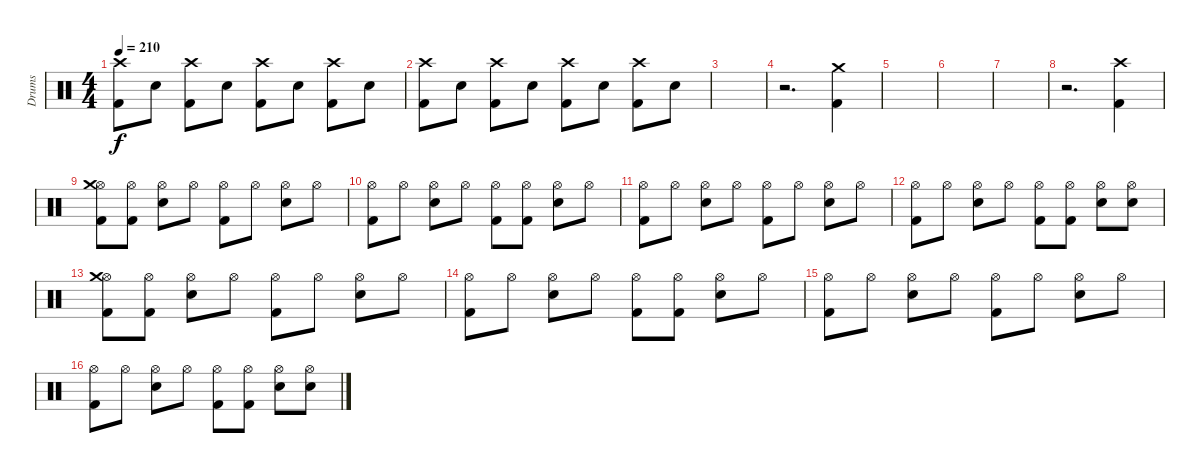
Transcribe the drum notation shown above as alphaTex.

\track ("Drums" "Drums") {instrument percussion}
\staff {score}
\articulation defaults
\ts (4 4)
\tempo 210
\clef neutral
\ks c
("Crash high (hit)" "Kick (hit) 2").8{dy f} "Electric Snare (hit)".8 ("Crash high (hit)" "Kick (hit) 2").8 "Electric Snare (hit)".8 ("Crash high (hit)" "Kick (hit) 2").8 "Electric Snare (hit)".8 ("Crash high (hit)" "Kick (hit) 2").8 "Electric Snare (hit)".8 |
("Crash high (hit)" "Kick (hit) 2").8 "Electric Snare (hit)".8 ("Crash high (hit)" "Kick (hit) 2").8 "Electric Snare (hit)".8 ("Crash high (hit)" "Kick (hit) 2").8 "Electric Snare (hit)".8 ("Crash high (hit)" "Kick (hit) 2").8 "Electric Snare (hit)".8 |
|
r.2{d} ("Crash medium (hit)" "Kick (hit) 2").4 |
|
|
|
r.2{d} ("Crash high (hit)" "Kick (hit) 2").4 |
("Hi-Hat (open)" "Crash medium (hit)" "Kick (hit) 2").8 ("Hi-Hat (open)" "Kick (hit) 2").8 ("Hi-Hat (open)" "Electric Snare (hit)").8 "Hi-Hat (open)".8 ("Hi-Hat (open)" "Kick (hit) 2").8 "Hi-Hat (open)".8 ("Hi-Hat (open)" "Electric Snare (hit)").8 "Hi-Hat (open)".8 |
("Hi-Hat (open)" "Kick (hit) 2").8 "Hi-Hat (open)".8 ("Hi-Hat (open)" "Electric Snare (hit)").8 "Hi-Hat (open)".8 ("Hi-Hat (open)" "Kick (hit) 2").8 ("Hi-Hat (open)" "Kick (hit) 2").8 ("Hi-Hat (open)" "Electric Snare (hit)").8 "Hi-Hat (open)".8 |
("Hi-Hat (open)" "Kick (hit) 2").8 "Hi-Hat (open)".8 ("Hi-Hat (open)" "Electric Snare (hit)").8 "Hi-Hat (open)".8 ("Hi-Hat (open)" "Kick (hit) 2").8 "Hi-Hat (open)".8 ("Hi-Hat (open)" "Electric Snare (hit)").8 "Hi-Hat (open)".8 |
("Hi-Hat (open)" "Kick (hit) 2").8 "Hi-Hat (open)".8 ("Hi-Hat (open)" "Electric Snare (hit)").8 "Hi-Hat (open)".8 ("Hi-Hat (open)" "Kick (hit) 2").8 ("Hi-Hat (open)" "Kick (hit) 2").8 ("Hi-Hat (open)" "Electric Snare (hit)").8 ("Hi-Hat (open)" "Electric Snare (hit)").8 |
("Hi-Hat (open)" "Crash medium (hit)" "Kick (hit) 2").8 ("Hi-Hat (open)" "Kick (hit) 2").8 ("Hi-Hat (open)" "Electric Snare (hit)").8 "Hi-Hat (open)".8 ("Hi-Hat (open)" "Kick (hit) 2").8 "Hi-Hat (open)".8 ("Hi-Hat (open)" "Electric Snare (hit)").8 "Hi-Hat (open)".8 |
("Hi-Hat (open)" "Kick (hit) 2").8 "Hi-Hat (open)".8 ("Hi-Hat (open)" "Electric Snare (hit)").8 "Hi-Hat (open)".8 ("Hi-Hat (open)" "Kick (hit) 2").8 ("Hi-Hat (open)" "Kick (hit) 2").8 ("Hi-Hat (open)" "Electric Snare (hit)").8 "Hi-Hat (open)".8 |
("Hi-Hat (open)" "Kick (hit) 2").8 "Hi-Hat (open)".8 ("Hi-Hat (open)" "Electric Snare (hit)").8 "Hi-Hat (open)".8 ("Hi-Hat (open)" "Kick (hit) 2").8 "Hi-Hat (open)".8 ("Hi-Hat (open)" "Electric Snare (hit)").8 "Hi-Hat (open)".8 |
("Hi-Hat (open)" "Kick (hit) 2").8 "Hi-Hat (open)".8 ("Hi-Hat (open)" "Electric Snare (hit)").8 "Hi-Hat (open)".8 ("Hi-Hat (open)" "Kick (hit) 2").8 ("Hi-Hat (open)" "Kick (hit) 2").8 ("Hi-Hat (open)" "Electric Snare (hit)").8 ("Hi-Hat (open)" "Electric Snare (hit)").8
